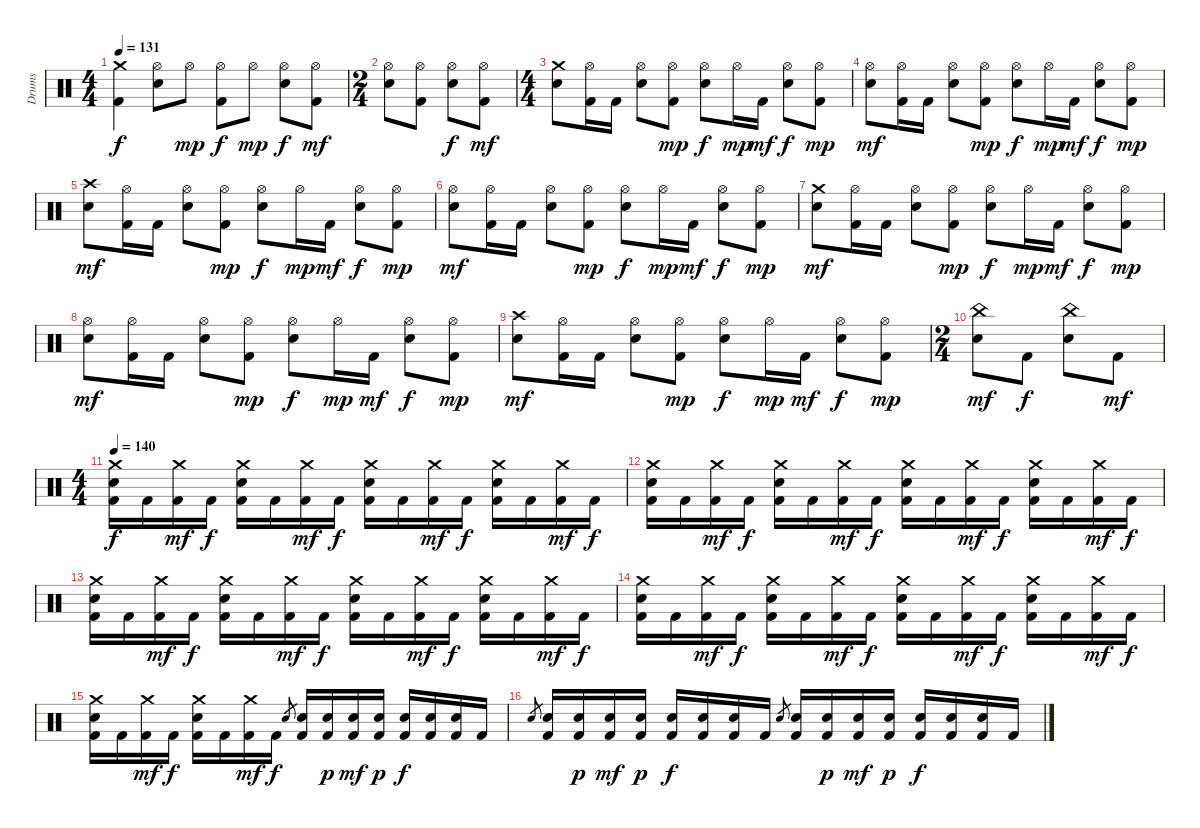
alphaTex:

\track ("Drums" "Drums") {instrument percussion}
\staff {score}
\articulation defaults
\ts (4 4)
\tempo 131
\clef neutral
\ks c
("Crash medium (hit)" "Kick (hit) 2").4{dy f} ("Hi-Hat (open)" "Electric Snare (hit)").8 "Hi-Hat (open)".8{dy mp} ("Hi-Hat (open)" "Kick (hit) 2").8{dy f} "Hi-Hat (open)".8{dy mp} ("Hi-Hat (open)" "Electric Snare (hit)").8{dy f} ("Hi-Hat (open)" "Kick (hit) 2").8{dy mf} |
\ts (2 4)
("Hi-Hat (open)" "Electric Snare (hit)").8 ("Hi-Hat (open)" "Kick (hit) 2").8 ("Hi-Hat (open)" "Electric Snare (hit)").8{dy f} ("Hi-Hat (open)" "Kick (hit) 2").8{dy mf} |
\ts (4 4)
("Crash medium (hit)" "Electric Snare (hit)").8 ("Hi-Hat (open)" "Kick (hit) 2").16 "Kick (hit) 2".16 ("Hi-Hat (open)" "Electric Snare (hit)").8 ("Hi-Hat (open)" "Kick (hit) 2").8{dy mp} ("Hi-Hat (open)" "Electric Snare (hit)").8{dy f} "Hi-Hat (open)".16{dy mp} "Kick (hit) 2".16{dy mf} ("Hi-Hat (open)" "Electric Snare (hit)").8{dy f} ("Hi-Hat (open)" "Kick (hit) 2").8{dy mp} |
("Hi-Hat (open)" "Electric Snare (hit)").8{dy mf} ("Hi-Hat (open)" "Kick (hit) 2").16 "Kick (hit) 2".16 ("Hi-Hat (open)" "Electric Snare (hit)").8 ("Hi-Hat (open)" "Kick (hit) 2").8{dy mp} ("Hi-Hat (open)" "Electric Snare (hit)").8{dy f} "Hi-Hat (open)".16{dy mp} "Kick (hit) 2".16{dy mf} ("Hi-Hat (open)" "Electric Snare (hit)").8{dy f} ("Hi-Hat (open)" "Kick (hit) 2").8{dy mp} |
("Crash high (hit)" "Electric Snare (hit)").8{dy mf} ("Hi-Hat (open)" "Kick (hit) 2").16 "Kick (hit) 2".16 ("Hi-Hat (open)" "Electric Snare (hit)").8 ("Hi-Hat (open)" "Kick (hit) 2").8{dy mp} ("Hi-Hat (open)" "Electric Snare (hit)").8{dy f} "Hi-Hat (open)".16{dy mp} "Kick (hit) 2".16{dy mf} ("Hi-Hat (open)" "Electric Snare (hit)").8{dy f} ("Hi-Hat (open)" "Kick (hit) 2").8{dy mp} |
("Hi-Hat (open)" "Electric Snare (hit)").8{dy mf} ("Hi-Hat (open)" "Kick (hit) 2").16 "Kick (hit) 2".16 ("Hi-Hat (open)" "Electric Snare (hit)").8 ("Hi-Hat (open)" "Kick (hit) 2").8{dy mp} ("Hi-Hat (open)" "Electric Snare (hit)").8{dy f} "Hi-Hat (open)".16{dy mp} "Kick (hit) 2".16{dy mf} ("Hi-Hat (open)" "Electric Snare (hit)").8{dy f} ("Hi-Hat (open)" "Kick (hit) 2").8{dy mp} |
("Crash medium (hit)" "Electric Snare (hit)").8{dy mf} ("Hi-Hat (open)" "Kick (hit) 2").16 "Kick (hit) 2".16 ("Hi-Hat (open)" "Electric Snare (hit)").8 ("Hi-Hat (open)" "Kick (hit) 2").8{dy mp} ("Hi-Hat (open)" "Electric Snare (hit)").8{dy f} "Hi-Hat (open)".16{dy mp} "Kick (hit) 2".16{dy mf} ("Hi-Hat (open)" "Electric Snare (hit)").8{dy f} ("Hi-Hat (open)" "Kick (hit) 2").8{dy mp} |
("Hi-Hat (open)" "Electric Snare (hit)").8{dy mf} ("Hi-Hat (open)" "Kick (hit) 2").16 "Kick (hit) 2".16 ("Hi-Hat (open)" "Electric Snare (hit)").8 ("Hi-Hat (open)" "Kick (hit) 2").8{dy mp} ("Hi-Hat (open)" "Electric Snare (hit)").8{dy f} "Hi-Hat (open)".16{dy mp} "Kick (hit) 2".16{dy mf} ("Hi-Hat (open)" "Electric Snare (hit)").8{dy f} ("Hi-Hat (open)" "Kick (hit) 2").8{dy mp} |
("Crash high (hit)" "Electric Snare (hit)").8{dy mf} ("Hi-Hat (open)" "Kick (hit) 2").16 "Kick (hit) 2".16 ("Hi-Hat (open)" "Electric Snare (hit)").8 ("Hi-Hat (open)" "Kick (hit) 2").8{dy mp} ("Hi-Hat (open)" "Electric Snare (hit)").8{dy f} "Hi-Hat (open)".16{dy mp} "Kick (hit) 2".16{dy mf} ("Hi-Hat (open)" "Electric Snare (hit)").8{dy f} ("Hi-Hat (open)" "Kick (hit) 2").8{dy mp} |
\ts (2 4)
("China (hit)" "Electric Snare (hit)").8{dy mf} "Kick (hit) 2".8{dy f} ("China (hit)" "Electric Snare (hit)").8 "Kick (hit) 2".8{dy mf} |
\ts (4 4)
\tempo 140
("Crash medium (hit)" "Electric Snare (hit)" "Kick (hit) 2").16{dy f} "Kick (hit) 2".16 ("Crash medium (hit)" "Kick (hit) 2").16{dy mf} "Kick (hit) 2".16{dy f} ("Crash medium (hit)" "Electric Snare (hit)" "Kick (hit) 2").16 "Kick (hit) 2".16 ("Crash medium (hit)" "Kick (hit) 2").16{dy mf} "Kick (hit) 2".16{dy f} ("Crash medium (hit)" "Electric Snare (hit)" "Kick (hit) 2").16 "Kick (hit) 2".16 ("Crash medium (hit)" "Kick (hit) 2").16{dy mf} "Kick (hit) 2".16{dy f} ("Crash medium (hit)" "Electric Snare (hit)" "Kick (hit) 2").16 "Kick (hit) 2".16 ("Crash medium (hit)" "Kick (hit) 2").16{dy mf} "Kick (hit) 2".16{dy f} |
("Crash medium (hit)" "Electric Snare (hit)" "Kick (hit) 2").16 "Kick (hit) 2".16 ("Crash medium (hit)" "Kick (hit) 2").16{dy mf} "Kick (hit) 2".16{dy f} ("Crash medium (hit)" "Electric Snare (hit)" "Kick (hit) 2").16 "Kick (hit) 2".16 ("Crash medium (hit)" "Kick (hit) 2").16{dy mf} "Kick (hit) 2".16{dy f} ("Crash medium (hit)" "Electric Snare (hit)" "Kick (hit) 2").16 "Kick (hit) 2".16 ("Crash medium (hit)" "Kick (hit) 2").16{dy mf} "Kick (hit) 2".16{dy f} ("Crash medium (hit)" "Electric Snare (hit)" "Kick (hit) 2").16 "Kick (hit) 2".16 ("Crash medium (hit)" "Kick (hit) 2").16{dy mf} "Kick (hit) 2".16{dy f} |
("Crash medium (hit)" "Electric Snare (hit)" "Kick (hit) 2").16 "Kick (hit) 2".16 ("Crash medium (hit)" "Kick (hit) 2").16{dy mf} "Kick (hit) 2".16{dy f} ("Crash medium (hit)" "Electric Snare (hit)" "Kick (hit) 2").16 "Kick (hit) 2".16 ("Crash medium (hit)" "Kick (hit) 2").16{dy mf} "Kick (hit) 2".16{dy f} ("Crash medium (hit)" "Electric Snare (hit)" "Kick (hit) 2").16 "Kick (hit) 2".16 ("Crash medium (hit)" "Kick (hit) 2").16{dy mf} "Kick (hit) 2".16{dy f} ("Crash medium (hit)" "Electric Snare (hit)" "Kick (hit) 2").16 "Kick (hit) 2".16 ("Crash medium (hit)" "Kick (hit) 2").16{dy mf} "Kick (hit) 2".16{dy f} |
("Crash medium (hit)" "Electric Snare (hit)" "Kick (hit) 2").16 "Kick (hit) 2".16 ("Crash medium (hit)" "Kick (hit) 2").16{dy mf} "Kick (hit) 2".16{dy f} ("Crash medium (hit)" "Electric Snare (hit)" "Kick (hit) 2").16 "Kick (hit) 2".16 ("Crash medium (hit)" "Kick (hit) 2").16{dy mf} "Kick (hit) 2".16{dy f} ("Crash medium (hit)" "Electric Snare (hit)" "Kick (hit) 2").16 "Kick (hit) 2".16 ("Crash medium (hit)" "Kick (hit) 2").16{dy mf} "Kick (hit) 2".16{dy f} ("Crash medium (hit)" "Electric Snare (hit)" "Kick (hit) 2").16 "Kick (hit) 2".16 ("Crash medium (hit)" "Kick (hit) 2").16{dy mf} "Kick (hit) 2".16{dy f} |
("Crash medium (hit)" "Electric Snare (hit)" "Kick (hit) 2").16 "Kick (hit) 2".16 ("Crash medium (hit)" "Kick (hit) 2").16{dy mf} "Kick (hit) 2".16{dy f} ("Crash medium (hit)" "Electric Snare (hit)" "Kick (hit) 2").16 "Kick (hit) 2".16 ("Crash medium (hit)" "Kick (hit) 2").16{dy mf} "Kick (hit) 2".16{dy f} "Electric Snare (hit)".8{gr} ("Electric Snare (hit)" "Kick (hit) 2").16 ("Electric Snare (hit)" "Kick (hit) 2").16{dy p} ("Electric Snare (hit)" "Kick (hit) 2").16{dy mf} ("Electric Snare (hit)" "Kick (hit) 2").16{dy p} ("Electric Snare (hit)" "Kick (hit) 2").16{dy f} ("Electric Snare (hit)" "Kick (hit) 2").16 ("Electric Snare (hit)" "Kick (hit) 2").16 "Kick (hit) 2".16 |
"Electric Snare (hit)".8{gr} ("Electric Snare (hit)" "Kick (hit) 2").16 ("Electric Snare (hit)" "Kick (hit) 2").16{dy p} ("Electric Snare (hit)" "Kick (hit) 2").16{dy mf} ("Electric Snare (hit)" "Kick (hit) 2").16{dy p} ("Electric Snare (hit)" "Kick (hit) 2").16{dy f} ("Electric Snare (hit)" "Kick (hit) 2").16 ("Electric Snare (hit)" "Kick (hit) 2").16 "Kick (hit) 2".16 "Electric Snare (hit)".8{gr} ("Electric Snare (hit)" "Kick (hit) 2").16 ("Electric Snare (hit)" "Kick (hit) 2").16{dy p} ("Electric Snare (hit)" "Kick (hit) 2").16{dy mf} ("Electric Snare (hit)" "Kick (hit) 2").16{dy p} ("Electric Snare (hit)" "Kick (hit) 2").16{dy f} ("Electric Snare (hit)" "Kick (hit) 2").16 ("Electric Snare (hit)" "Kick (hit) 2").16 "Kick (hit) 2".16
